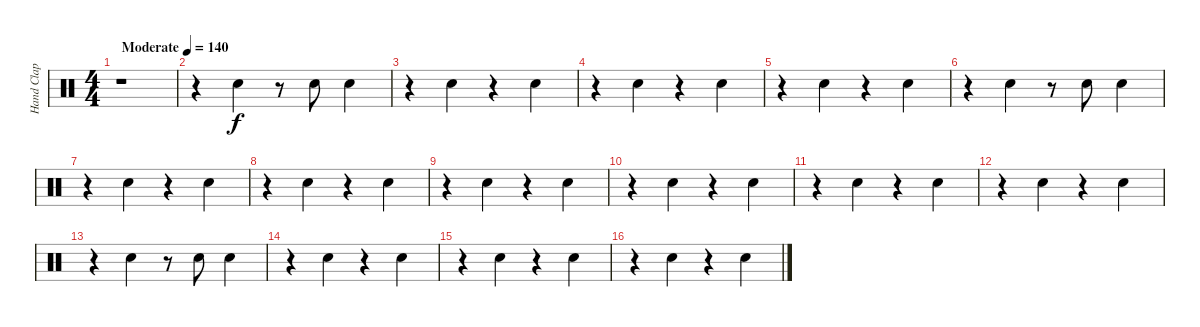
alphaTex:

\track ("Hand Clap" "Hand Clap") {instrument percussion}
\staff {score}
\articulation defaults
\ts (4 4)
\tempo (140 "Moderate")
\clef neutral
\ks c
r.1{dy f} |
r.4 "Hand Clap (hit)".4 r.8 "Hand Clap (hit)".8 "Hand Clap (hit)".4 |
r.4 "Hand Clap (hit)".4 r.4 "Hand Clap (hit)".4 |
r.4 "Hand Clap (hit)".4 r.4 "Hand Clap (hit)".4 |
r.4 "Hand Clap (hit)".4 r.4 "Hand Clap (hit)".4 |
r.4 "Hand Clap (hit)".4 r.8 "Hand Clap (hit)".8 "Hand Clap (hit)".4 |
r.4 "Hand Clap (hit)".4 r.4 "Hand Clap (hit)".4 |
r.4 "Hand Clap (hit)".4 r.4 "Hand Clap (hit)".4 |
r.4 "Hand Clap (hit)".4 r.4 "Hand Clap (hit)".4 |
r.4 "Hand Clap (hit)".4 r.4 "Hand Clap (hit)".4 |
r.4 "Hand Clap (hit)".4 r.4 "Hand Clap (hit)".4 |
r.4 "Hand Clap (hit)".4 r.4 "Hand Clap (hit)".4 |
r.4 "Hand Clap (hit)".4 r.8 "Hand Clap (hit)".8 "Hand Clap (hit)".4 |
r.4 "Hand Clap (hit)".4 r.4 "Hand Clap (hit)".4 |
r.4 "Hand Clap (hit)".4 r.4 "Hand Clap (hit)".4 |
r.4 "Hand Clap (hit)".4 r.4 "Hand Clap (hit)".4
